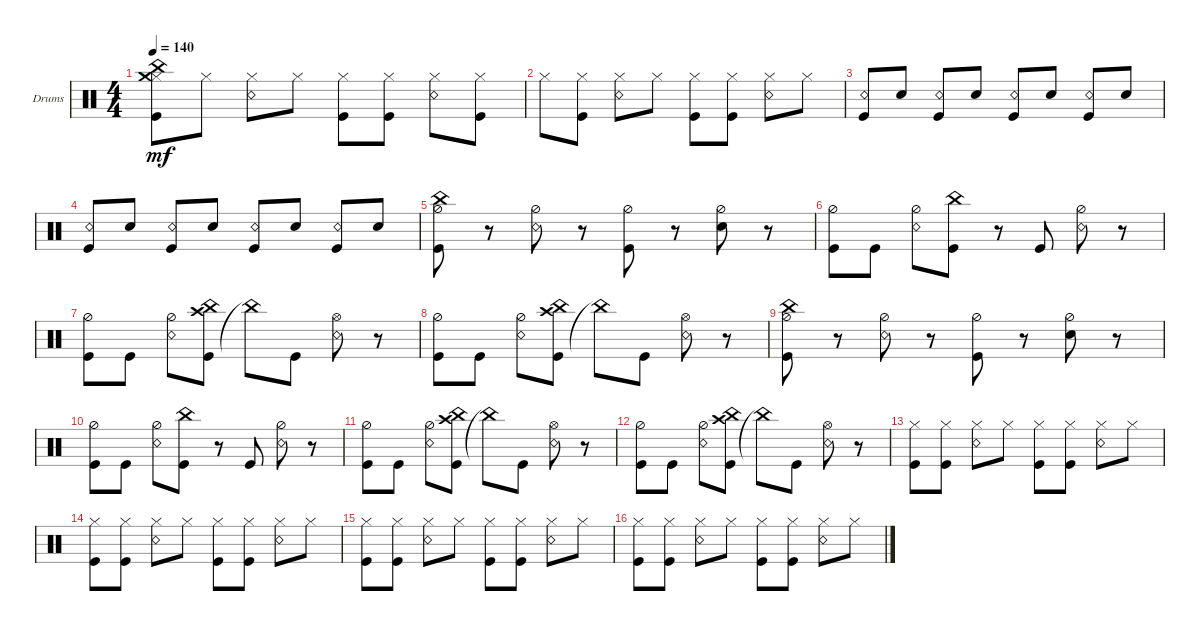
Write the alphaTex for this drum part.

\defaultSystemsLayout 4
\bracketExtendMode groupsimilarinstruments
\firstSystemTrackNameOrientation horizontal
\otherSystemsTrackNameOrientation horizontal
\track ("Drumkit" "Drums") {instrument percussion}
\staff {score}
\articulation defaults
\ts (4 4)
\tempo 140
\clef neutral
\ks c
("Kick (hit)" "Hi-Hat (closed)" "China (hit)" "Crash medium (hit)").8{dy mf} "Hi-Hat (closed)".8 ("Hi-Hat (closed)" "Snare (rim shot)").8 "Hi-Hat (closed)".8 ("Hi-Hat (closed)" "Kick (hit)").8 ("Hi-Hat (closed)" "Kick (hit)").8 ("Hi-Hat (closed)" "Snare (rim shot)").8 ("Hi-Hat (closed)" "Kick (hit)").8 |
"Hi-Hat (closed)".8 ("Hi-Hat (closed)" "Kick (hit)").8 ("Hi-Hat (closed)" "Snare (rim shot)").8 "Hi-Hat (closed)".8 ("Hi-Hat (closed)" "Kick (hit)").8 ("Hi-Hat (closed)" "Kick (hit)").8 ("Hi-Hat (closed)" "Snare (rim shot)").8 "Hi-Hat (closed)".8 |
("Snare (rim shot)" "Kick (hit)").8 "Snare (hit) 2".8 ("Snare (rim shot)" "Kick (hit)").8 "Snare (hit) 2".8 ("Snare (rim shot)" "Kick (hit)").8 "Snare (hit) 2".8 ("Snare (rim shot)" "Kick (hit)").8 "Snare (hit) 2".8 |
("Snare (rim shot)" "Kick (hit)").8 "Snare (hit) 2".8 ("Snare (rim shot)" "Kick (hit)").8 "Snare (hit) 2".8 ("Snare (rim shot)" "Kick (hit)").8 "Snare (hit) 2".8 ("Snare (rim shot)" "Kick (hit)").8 "Snare (hit) 2".8 |
("Kick (hit)" "Hi-Hat (half)" "China (hit)").8 r.8 ("Snare (rim shot)" "Hi-Hat (half)").8 r.8 ("Kick (hit)" "Hi-Hat (half)").8 r.8 ("Snare (hit) 2" "Hi-Hat (half)").8 r.8 |
("Kick (hit)" "Hi-Hat (half)").8 "Kick (hit)".8 ("Snare (rim shot)" "Hi-Hat (half)").8 ("Kick (hit)" "China (hit)").8 r.8 "Kick (hit)".8 ("Snare (rim shot)" "Hi-Hat (half)").8 r.8 |
("Kick (hit)" "Hi-Hat (half)").8 "Kick (hit)".8 ("Snare (rim shot)" "Hi-Hat (half)").8 ("Kick (hit)" "China (hit)" "Crash high (hit)").8 "China (hit)"{t}.8 "Kick (hit)".8 ("Snare (rim shot)" "Hi-Hat (open)").8 r.8 |
("Kick (hit)" "Hi-Hat (half)").8 "Kick (hit)".8 ("Snare (rim shot)" "Hi-Hat (half)").8 ("Kick (hit)" "China (hit)" "Crash high (hit)").8 "China (hit)"{t}.8 "Kick (hit)".8 ("Snare (rim shot)" "Hi-Hat (open)").8 r.8 |
("Kick (hit)" "Hi-Hat (half)" "China (hit)").8 r.8 ("Snare (rim shot)" "Hi-Hat (half)").8 r.8 ("Kick (hit)" "Hi-Hat (half)").8 r.8 ("Snare (hit) 2" "Hi-Hat (half)").8 r.8 |
("Kick (hit)" "Hi-Hat (half)").8 "Kick (hit)".8 ("Snare (rim shot)" "Hi-Hat (half)").8 ("Kick (hit)" "China (hit)").8 r.8 "Kick (hit)".8 ("Snare (rim shot)" "Hi-Hat (half)").8 r.8 |
("Kick (hit)" "Hi-Hat (half)").8 "Kick (hit)".8 ("Snare (rim shot)" "Hi-Hat (half)").8 ("Kick (hit)" "China (hit)" "Crash high (hit)").8 "China (hit)"{t}.8 "Kick (hit)".8 ("Snare (rim shot)" "Hi-Hat (open)").8 r.8 |
("Kick (hit)" "Hi-Hat (half)").8 "Kick (hit)".8 ("Snare (rim shot)" "Hi-Hat (half)").8 ("Kick (hit)" "China (hit)" "Crash high (hit)").8 "China (hit)"{t}.8 "Kick (hit)".8 ("Snare (rim shot)" "Hi-Hat (open)").8 r.8 |
("Hi-Hat (closed)" "Kick (hit)").8 ("Hi-Hat (closed)" "Kick (hit)").8 ("Hi-Hat (closed)" "Snare (rim shot)").8 "Hi-Hat (closed)".8 ("Hi-Hat (closed)" "Kick (hit)").8 ("Hi-Hat (closed)" "Kick (hit)").8 ("Hi-Hat (closed)" "Snare (rim shot)").8 "Hi-Hat (closed)".8 |
("Hi-Hat (closed)" "Kick (hit)").8 ("Hi-Hat (closed)" "Kick (hit)").8 ("Hi-Hat (closed)" "Snare (rim shot)").8 "Hi-Hat (closed)".8 ("Hi-Hat (closed)" "Kick (hit)").8 ("Hi-Hat (closed)" "Kick (hit)").8 ("Hi-Hat (closed)" "Snare (rim shot)").8 "Hi-Hat (closed)".8 |
("Hi-Hat (closed)" "Kick (hit)").8 ("Hi-Hat (closed)" "Kick (hit)").8 ("Hi-Hat (closed)" "Snare (rim shot)").8 "Hi-Hat (closed)".8 ("Hi-Hat (closed)" "Kick (hit)").8 ("Hi-Hat (closed)" "Kick (hit)").8 ("Hi-Hat (closed)" "Snare (rim shot)").8 "Hi-Hat (closed)".8 |
("Hi-Hat (closed)" "Kick (hit)").8 ("Hi-Hat (closed)" "Kick (hit)").8 ("Hi-Hat (closed)" "Snare (rim shot)").8 "Hi-Hat (closed)".8 ("Hi-Hat (closed)" "Kick (hit)").8 ("Hi-Hat (closed)" "Kick (hit)").8 ("Hi-Hat (closed)" "Snare (rim shot)").8 "Hi-Hat (closed)".8
